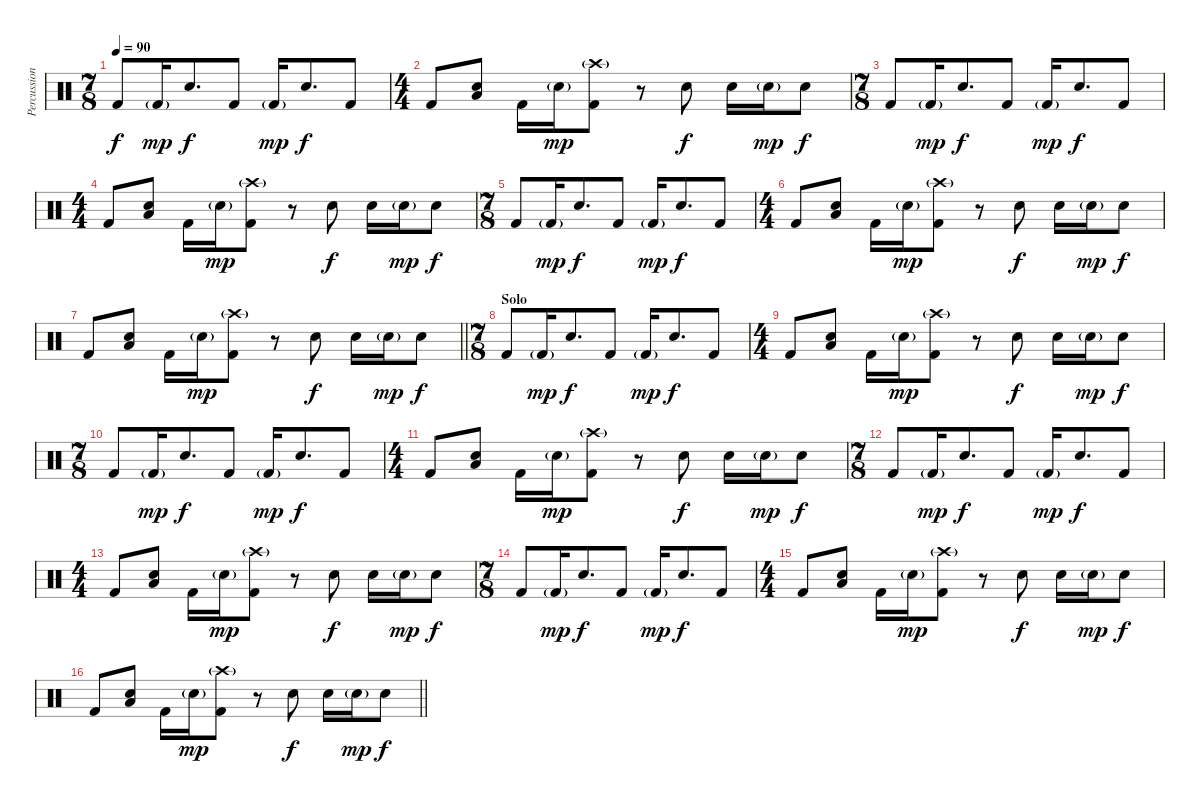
\track ("Percussion" "Percussion") {instrument percussion}
\staff {score}
\articulation defaults
\ts (7 8)
\tempo 90
\clef neutral
\ks c "Kick (hit) 2".8{dy f} "Kick (hit) 2"{g}.16{dy mp} "Snare (hit) 2".8{d dy f} "Kick (hit) 2".8 "Kick (hit) 2"{g}.16{dy mp} "Snare (hit) 2".8{d dy f} "Kick (hit) 2".8
|
\ts (4 4)
"Kick (hit) 2".8 ("Snare (hit) 2" "Low Floor Tom (hit)").8 "Kick (hit) 2".16 "Snare (hit) 2"{g}.16{dy mp} ("Crash high (hit)"{g} "Kick (hit) 2").8 r.8 "Snare (hit) 2".8{dy f} "Snare (hit) 2".16 "Snare (hit) 2"{g}.16{dy mp} "Snare (hit) 2".8{dy f} |
\ts (7 8)
"Kick (hit) 2".8 "Kick (hit) 2"{g}.16{dy mp} "Snare (hit) 2".8{d dy f} "Kick (hit) 2".8 "Kick (hit) 2"{g}.16{dy mp} "Snare (hit) 2".8{d dy f} "Kick (hit) 2".8 |
\ts (4 4)
"Kick (hit) 2".8 ("Snare (hit) 2" "Low Floor Tom (hit)").8 "Kick (hit) 2".16 "Snare (hit) 2"{g}.16{dy mp} ("Crash high (hit)"{g} "Kick (hit) 2").8 r.8 "Snare (hit) 2".8{dy f} "Snare (hit) 2".16 "Snare (hit) 2"{g}.16{dy mp} "Snare (hit) 2".8{dy f} |
\ts (7 8)
"Kick (hit) 2".8 "Kick (hit) 2"{g}.16{dy mp} "Snare (hit) 2".8{d dy f} "Kick (hit) 2".8 "Kick (hit) 2"{g}.16{dy mp} "Snare (hit) 2".8{d dy f} "Kick (hit) 2".8 |
\ts (4 4)
"Kick (hit) 2".8 ("Snare (hit) 2" "Low Floor Tom (hit)").8 "Kick (hit) 2".16 "Snare (hit) 2"{g}.16{dy mp} ("Crash high (hit)"{g} "Kick (hit) 2").8 r.8 "Snare (hit) 2".8{dy f} "Snare (hit) 2".16 "Snare (hit) 2"{g}.16{dy mp} "Snare (hit) 2".8{dy f} |
\barLineRight lightlight "Kick (hit) 2".8
("Snare (hit) 2" "Low Floor Tom (hit)").8 "Kick (hit) 2".16 "Snare (hit) 2"{g}.16{dy mp} ("Crash high (hit)"{g} "Kick (hit) 2").8 r.8 "Snare (hit) 2".8{dy f} "Snare (hit) 2".16 "Snare (hit) 2"{g}.16{dy mp} "Snare (hit) 2".8{dy f} |
\ts (7 8)
\section ("" "Solo")
"Kick (hit) 2".8 "Kick (hit) 2"{g}.16{dy mp} "Snare (hit) 2".8{d dy f} "Kick (hit) 2".8 "Kick (hit) 2"{g}.16{dy mp} "Snare (hit) 2".8{d dy f} "Kick (hit) 2".8 |
\ts (4 4)
"Kick (hit) 2".8 ("Snare (hit) 2" "Low Floor Tom (hit)").8 "Kick (hit) 2".16 "Snare (hit) 2"{g}.16{dy mp} ("Crash high (hit)"{g} "Kick (hit) 2").8 r.8 "Snare (hit) 2".8{dy f} "Snare (hit) 2".16 "Snare (hit) 2"{g}.16{dy mp} "Snare (hit) 2".8{dy f} |
\ts (7 8)
"Kick (hit) 2".8 "Kick (hit) 2"{g}.16{dy mp} "Snare (hit) 2".8{d dy f} "Kick (hit) 2".8 "Kick (hit) 2"{g}.16{dy mp} "Snare (hit) 2".8{d dy f} "Kick (hit) 2".8 |
\ts (4 4)
"Kick (hit) 2".8 ("Snare (hit) 2" "Low Floor Tom (hit)").8 "Kick (hit) 2".16 "Snare (hit) 2"{g}.16{dy mp} ("Crash high (hit)"{g} "Kick (hit) 2").8 r.8 "Snare (hit) 2".8{dy f} "Snare (hit) 2".16 "Snare (hit) 2"{g}.16{dy mp} "Snare (hit) 2".8{dy f} |
\ts (7 8)
"Kick (hit) 2".8 "Kick (hit) 2"{g}.16{dy mp} "Snare (hit) 2".8{d dy f} "Kick (hit) 2".8 "Kick (hit) 2"{g}.16{dy mp} "Snare (hit) 2".8{d dy f} "Kick (hit) 2".8 |
\ts (4 4)
"Kick (hit) 2".8 ("Snare (hit) 2" "Low Floor Tom (hit)").8 "Kick (hit) 2".16 "Snare (hit) 2"{g}.16{dy mp} ("Crash high (hit)"{g} "Kick (hit) 2").8 r.8 "Snare (hit) 2".8{dy f} "Snare (hit) 2".16 "Snare (hit) 2"{g}.16{dy mp} "Snare (hit) 2".8{dy f} |
\ts (7 8)
"Kick (hit) 2".8 "Kick (hit) 2"{g}.16{dy mp} "Snare (hit) 2".8{d dy f} "Kick (hit) 2".8 "Kick (hit) 2"{g}.16{dy mp} "Snare (hit) 2".8{d dy f} "Kick (hit) 2".8 |
\ts (4 4)
"Kick (hit) 2".8 ("Snare (hit) 2" "Low Floor Tom (hit)").8 "Kick (hit) 2".16 "Snare (hit) 2"{g}.16{dy mp} ("Crash high (hit)"{g} "Kick (hit) 2").8 r.8 "Snare (hit) 2".8{dy f} "Snare (hit) 2".16 "Snare (hit) 2"{g}.16{dy mp} "Snare (hit) 2".8{dy f} |
\barLineRight lightlight "Kick (hit) 2".8
("Snare (hit) 2" "Low Floor Tom (hit)").8 "Kick (hit) 2".16 "Snare (hit) 2"{g}.16{dy mp} ("Crash high (hit)"{g} "Kick (hit) 2").8 r.8 "Snare (hit) 2".8{dy f} "Snare (hit) 2".16 "Snare (hit) 2"{g}.16{dy mp} "Snare (hit) 2".8{dy f}
